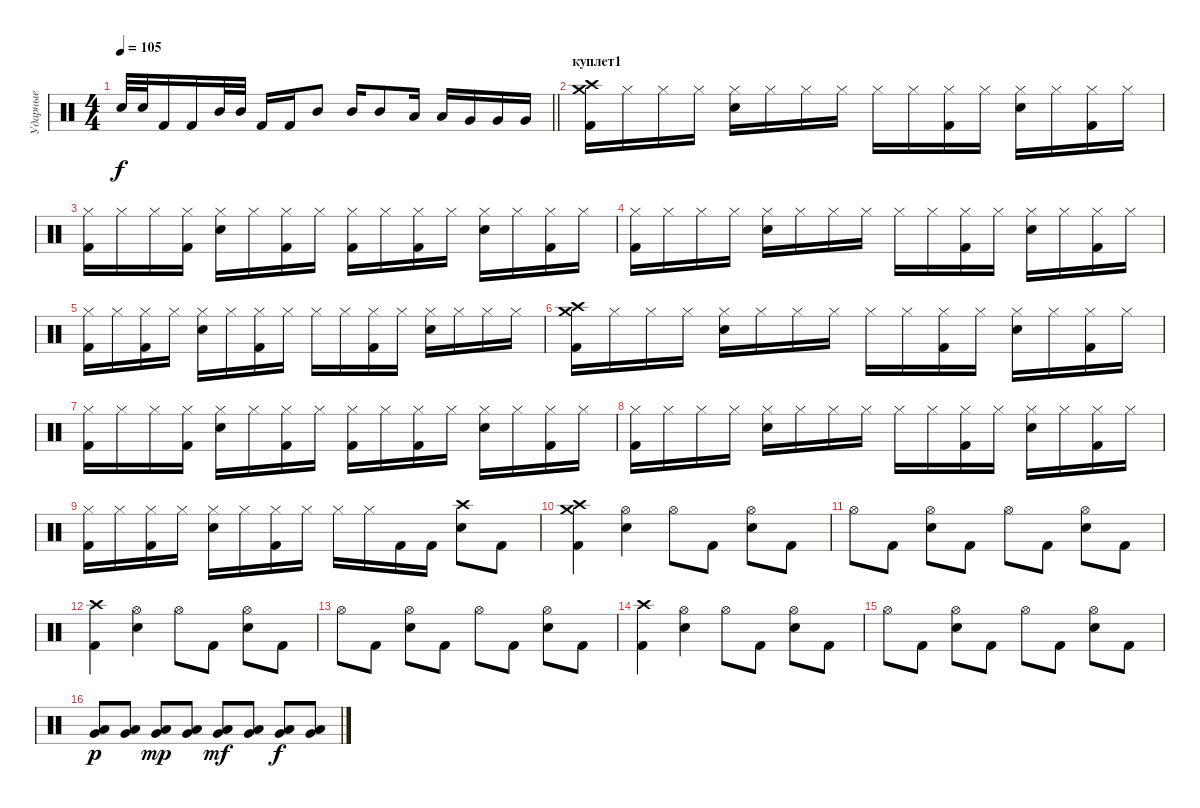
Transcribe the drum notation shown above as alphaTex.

\track ("Ударные" "Ударные") {instrument percussion}
\staff
\articulation defaults
\ts (4 4)
\tempo 105
\clef neutral
\barLineRight lightlight
\ks c "Electric Snare (hit)".32{dy f} "Electric Snare (hit)".32 "Kick (hit) 2".16 "Kick (hit) 2".16 "Mid Tom (hit)".32 "Mid Tom (hit)".32 "Kick (hit) 2".16 "Kick (hit) 2".16 "Mid Tom (hit)".8 "Mid Tom (hit)".16 "Mid Tom (hit)".8 "Low Tom (hit)".16 "Low Tom (hit)".16 "Very Low Tom (hit)".16 "Very Low Tom (hit)".16 "Very Low Tom (hit)".16
|
\section ("" "куплет1")
("Crash high (hit)" "Crash medium (hit)" "Kick (hit) 2").16 "Hi-Hat (closed)".16 "Hi-Hat (closed)".16 "Hi-Hat (closed)".16 ("Hi-Hat (closed)" "Electric Snare (hit)").16 "Hi-Hat (closed)".16 "Hi-Hat (closed)".16 "Hi-Hat (closed)".16 "Hi-Hat (closed)".16 "Hi-Hat (closed)".16 ("Hi-Hat (closed)" "Kick (hit) 2").16 "Hi-Hat (closed)".16 ("Hi-Hat (closed)" "Electric Snare (hit)").16 "Hi-Hat (closed)".16 ("Hi-Hat (closed)" "Kick (hit) 2").16 "Hi-Hat (closed)".16 |
("Hi-Hat (closed)" "Kick (hit) 2").16 "Hi-Hat (closed)".16 "Hi-Hat (closed)".16 ("Hi-Hat (closed)" "Kick (hit) 2").16 ("Hi-Hat (closed)" "Electric Snare (hit)").16 "Hi-Hat (closed)".16 ("Hi-Hat (closed)" "Kick (hit) 2").16 "Hi-Hat (closed)".16 ("Hi-Hat (closed)" "Kick (hit) 2").16 "Hi-Hat (closed)".16 ("Hi-Hat (closed)" "Kick (hit) 2").16 "Hi-Hat (closed)".16 ("Hi-Hat (closed)" "Electric Snare (hit)").16 "Hi-Hat (closed)".16 ("Hi-Hat (closed)" "Kick (hit) 2").16 "Hi-Hat (closed)".16 |
("Hi-Hat (closed)" "Kick (hit) 2").16 "Hi-Hat (closed)".16 "Hi-Hat (closed)".16 "Hi-Hat (closed)".16 ("Hi-Hat (closed)" "Electric Snare (hit)").16 "Hi-Hat (closed)".16 "Hi-Hat (closed)".16 "Hi-Hat (closed)".16 "Hi-Hat (closed)".16 "Hi-Hat (closed)".16 ("Hi-Hat (closed)" "Kick (hit) 2").16 "Hi-Hat (closed)".16 ("Hi-Hat (closed)" "Electric Snare (hit)").16 "Hi-Hat (closed)".16 ("Hi-Hat (closed)" "Kick (hit) 2").16 "Hi-Hat (closed)".16 |
("Hi-Hat (closed)" "Kick (hit) 2").16 "Hi-Hat (closed)".16 ("Hi-Hat (closed)" "Kick (hit) 2").16 "Hi-Hat (closed)".16 ("Hi-Hat (closed)" "Electric Snare (hit)").16 "Hi-Hat (closed)".16 ("Hi-Hat (closed)" "Kick (hit) 2").16 "Hi-Hat (closed)".16 "Hi-Hat (closed)".16 "Hi-Hat (closed)".16 ("Hi-Hat (closed)" "Kick (hit) 2").16 "Hi-Hat (closed)".16 ("Hi-Hat (closed)" "Electric Snare (hit)").16 "Hi-Hat (closed)".16 "Hi-Hat (closed)".16 "Hi-Hat (closed)".16 |
("Crash high (hit)" "Crash medium (hit)" "Kick (hit) 2").16 "Hi-Hat (closed)".16 "Hi-Hat (closed)".16 "Hi-Hat (closed)".16 ("Hi-Hat (closed)" "Electric Snare (hit)").16 "Hi-Hat (closed)".16 "Hi-Hat (closed)".16 "Hi-Hat (closed)".16 "Hi-Hat (closed)".16 "Hi-Hat (closed)".16 ("Hi-Hat (closed)" "Kick (hit) 2").16 "Hi-Hat (closed)".16 ("Hi-Hat (closed)" "Electric Snare (hit)").16 "Hi-Hat (closed)".16 ("Hi-Hat (closed)" "Kick (hit) 2").16 "Hi-Hat (closed)".16 |
("Hi-Hat (closed)" "Kick (hit) 2").16 "Hi-Hat (closed)".16 "Hi-Hat (closed)".16 ("Hi-Hat (closed)" "Kick (hit) 2").16 ("Hi-Hat (closed)" "Electric Snare (hit)").16 "Hi-Hat (closed)".16 ("Hi-Hat (closed)" "Kick (hit) 2").16 "Hi-Hat (closed)".16 ("Hi-Hat (closed)" "Kick (hit) 2").16 "Hi-Hat (closed)".16 ("Hi-Hat (closed)" "Kick (hit) 2").16 "Hi-Hat (closed)".16 ("Hi-Hat (closed)" "Electric Snare (hit)").16 "Hi-Hat (closed)".16 ("Hi-Hat (closed)" "Kick (hit) 2").16 "Hi-Hat (closed)".16 |
("Hi-Hat (closed)" "Kick (hit) 2").16 "Hi-Hat (closed)".16 "Hi-Hat (closed)".16 "Hi-Hat (closed)".16 ("Hi-Hat (closed)" "Electric Snare (hit)").16 "Hi-Hat (closed)".16 "Hi-Hat (closed)".16 "Hi-Hat (closed)".16 "Hi-Hat (closed)".16 "Hi-Hat (closed)".16 ("Hi-Hat (closed)" "Kick (hit) 2").16 "Hi-Hat (closed)".16 ("Hi-Hat (closed)" "Electric Snare (hit)").16 "Hi-Hat (closed)".16 ("Hi-Hat (closed)" "Kick (hit) 2").16 "Hi-Hat (closed)".16 |
("Hi-Hat (closed)" "Kick (hit) 2").16 "Hi-Hat (closed)".16 ("Hi-Hat (closed)" "Kick (hit) 2").16 "Hi-Hat (closed)".16 ("Hi-Hat (closed)" "Electric Snare (hit)").16 "Hi-Hat (closed)".16 ("Hi-Hat (closed)" "Kick (hit) 2").16 "Hi-Hat (closed)".16 "Hi-Hat (closed)".16 "Hi-Hat (closed)".16 "Kick (hit) 2".16 "Kick (hit) 2".16 ("Crash high (hit)" "Electric Snare (hit)").8 "Kick (hit) 2".8 |
("Crash high (hit)" "Crash medium (hit)" "Kick (hit) 2").4 ("Hi-Hat (open)" "Electric Snare (hit)").4 "Hi-Hat (open)".8 "Kick (hit) 2".8 ("Hi-Hat (open)" "Electric Snare (hit)").8 "Kick (hit) 2".8 |
"Hi-Hat (open)".8 "Kick (hit) 2".8 ("Hi-Hat (open)" "Electric Snare (hit)").8 "Kick (hit) 2".8 "Hi-Hat (open)".8 "Kick (hit) 2".8 ("Hi-Hat (open)" "Electric Snare (hit)").8 "Kick (hit) 2".8 |
("Crash high (hit)" "Kick (hit) 2").4 ("Hi-Hat (open)" "Electric Snare (hit)").4 "Hi-Hat (open)".8 "Kick (hit) 2".8 ("Hi-Hat (open)" "Electric Snare (hit)").8 "Kick (hit) 2".8 |
"Hi-Hat (open)".8 "Kick (hit) 2".8 ("Hi-Hat (open)" "Electric Snare (hit)").8 "Kick (hit) 2".8 "Hi-Hat (open)".8 "Kick (hit) 2".8 ("Hi-Hat (open)" "Electric Snare (hit)").8 "Kick (hit) 2".8 |
("Crash high (hit)" "Kick (hit) 2").4 ("Hi-Hat (open)" "Electric Snare (hit)").4 "Hi-Hat (open)".8 "Kick (hit) 2".8 ("Hi-Hat (open)" "Electric Snare (hit)").8 "Kick (hit) 2".8 |
"Hi-Hat (open)".8 "Kick (hit) 2".8 ("Hi-Hat (open)" "Electric Snare (hit)").8 "Kick (hit) 2".8 "Hi-Hat (open)".8 "Kick (hit) 2".8 ("Hi-Hat (open)" "Electric Snare (hit)").8 "Kick (hit) 2".8 |
("Low Tom (hit)" "Very Low Tom (hit)").8{dy p} ("Low Tom (hit)" "Very Low Tom (hit)").8 ("Low Tom (hit)" "Very Low Tom (hit)").8{dy mp} ("Low Tom (hit)" "Very Low Tom (hit)").8 ("Low Tom (hit)" "Very Low Tom (hit)").8{dy mf} ("Low Tom (hit)" "Very Low Tom (hit)").8 ("Low Tom (hit)" "Very Low Tom (hit)").8{dy f} ("Low Tom (hit)" "Very Low Tom (hit)").8
